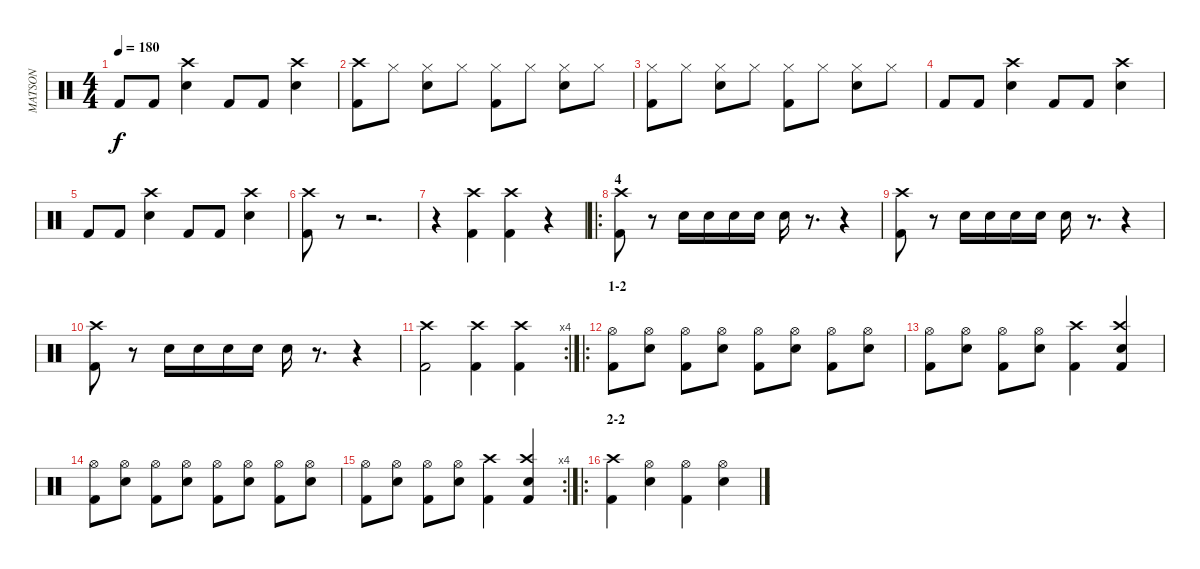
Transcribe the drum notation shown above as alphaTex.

\track ("MATSON" "MATSON") {instrument percussion}
\staff {score}
\articulation defaults
\ts (4 4)
\tempo 180
\clef neutral
\ks c "Kick (hit) 2".8{dy f} "Kick (hit) 2".8
("Crash high (hit)" "Snare (hit) 2").4 "Kick (hit) 2".8 "Kick (hit) 2".8 ("Crash high (hit)" "Snare (hit) 2").4 |
("Crash high (hit)" "Kick (hit) 2").8 "Hi-Hat (closed)".8 ("Hi-Hat (closed)" "Snare (hit) 2").8 "Hi-Hat (closed)".8 ("Hi-Hat (closed)" "Kick (hit) 2").8 "Hi-Hat (closed)".8 ("Hi-Hat (closed)" "Snare (hit) 2").8 "Hi-Hat (closed)".8 |
("Hi-Hat (closed)" "Kick (hit) 2").8 "Hi-Hat (closed)".8 ("Hi-Hat (closed)" "Snare (hit) 2").8 "Hi-Hat (closed)".8 ("Hi-Hat (closed)" "Kick (hit) 2").8 "Hi-Hat (closed)".8 ("Hi-Hat (closed)" "Snare (hit) 2").8 "Hi-Hat (closed)".8 |
"Kick (hit) 2".8 "Kick (hit) 2".8 ("Crash high (hit)" "Snare (hit) 2").4 "Kick (hit) 2".8 "Kick (hit) 2".8 ("Crash high (hit)" "Snare (hit) 2").4 |
"Kick (hit) 2".8 "Kick (hit) 2".8 ("Crash high (hit)" "Snare (hit) 2").4 "Kick (hit) 2".8 "Kick (hit) 2".8 ("Crash high (hit)" "Snare (hit) 2").4 |
("Crash high (hit)" "Kick (hit) 2").8 r.8 r.2{d} |
r.4 ("Crash high (hit)" "Kick (hit) 2").4 ("Crash high (hit)" "Kick (hit) 2").4 r.4 |
\ro
\section ("" "4")
("Crash high (hit)" "Kick (hit) 2").8 r.8 "Snare (hit) 2".16 "Snare (hit) 2".16 "Snare (hit) 2".16 "Snare (hit) 2".16 "Snare (hit) 2".16 r.8{d} r.4 |
("Crash high (hit)" "Kick (hit) 2").8 r.8 "Snare (hit) 2".16 "Snare (hit) 2".16 "Snare (hit) 2".16 "Snare (hit) 2".16 "Snare (hit) 2".16 r.8{d} r.4 |
("Crash high (hit)" "Kick (hit) 2").8 r.8 "Snare (hit) 2".16 "Snare (hit) 2".16 "Snare (hit) 2".16 "Snare (hit) 2".16 "Snare (hit) 2".16 r.8{d} r.4 |
\rc 4
("Crash high (hit)" "Kick (hit) 2").2 ("Crash high (hit)" "Kick (hit) 2").4 ("Crash high (hit)" "Kick (hit) 2").4 |
\ro
\section ("" "1-2")
("Hi-Hat (open)" "Kick (hit) 2").8 ("Hi-Hat (open)" "Snare (hit) 2").8 ("Hi-Hat (open)" "Kick (hit) 2").8 ("Hi-Hat (open)" "Snare (hit) 2").8 ("Hi-Hat (open)" "Kick (hit) 2").8 ("Hi-Hat (open)" "Snare (hit) 2").8 ("Hi-Hat (open)" "Kick (hit) 2").8 ("Hi-Hat (open)" "Snare (hit) 2").8 |
("Hi-Hat (open)" "Kick (hit) 2").8 ("Hi-Hat (open)" "Snare (hit) 2").8 ("Hi-Hat (open)" "Kick (hit) 2").8 ("Hi-Hat (open)" "Snare (hit) 2").8 ("Crash high (hit)" "Kick (hit) 2").4 ("Crash high (hit)" "Snare (hit) 2" "Kick (hit) 2").4 |
("Hi-Hat (open)" "Kick (hit) 2").8 ("Hi-Hat (open)" "Snare (hit) 2").8 ("Hi-Hat (open)" "Kick (hit) 2").8 ("Hi-Hat (open)" "Snare (hit) 2").8 ("Hi-Hat (open)" "Kick (hit) 2").8 ("Hi-Hat (open)" "Snare (hit) 2").8 ("Hi-Hat (open)" "Kick (hit) 2").8 ("Hi-Hat (open)" "Snare (hit) 2").8 |
\rc 4
("Hi-Hat (open)" "Kick (hit) 2").8 ("Hi-Hat (open)" "Snare (hit) 2").8 ("Hi-Hat (open)" "Kick (hit) 2").8 ("Hi-Hat (open)" "Snare (hit) 2").8 ("Crash high (hit)" "Kick (hit) 2").4 ("Crash high (hit)" "Snare (hit) 2" "Kick (hit) 2").4 |
\ro
\section ("" "2-2")
("Crash high (hit)" "Kick (hit) 2").4 ("Hi-Hat (open)" "Snare (hit) 2").4 ("Hi-Hat (open)" "Kick (hit) 2").4 ("Hi-Hat (open)" "Snare (hit) 2").4
